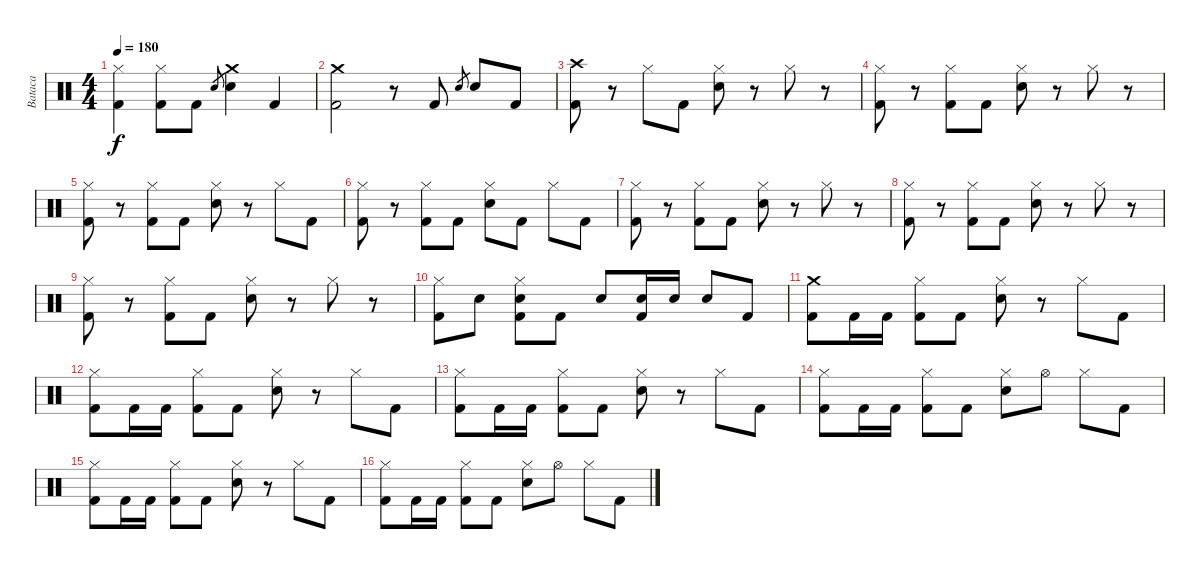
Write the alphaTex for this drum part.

\track ("Bataca" "Bataca") {instrument percussion}
\staff {score}
\articulation defaults
\ts (4 4)
\tempo 180
\clef neutral
\ks c
("Hi-Hat (closed)" "Kick (hit) 2").4{dy f} ("Hi-Hat (closed)" "Kick (hit) 2").8 "Kick (hit) 2".8 "Electric Snare (hit)".8{gr} ("Crash medium (hit)" "Electric Snare (hit)").4 "Kick (hit) 2".4 |
("Crash medium (hit)" "Kick (hit) 2").2 r.8 "Kick (hit) 2".8 "Electric Snare (hit)".8{gr} "Electric Snare (hit)".8 "Kick (hit) 2".8 |
("Crash high (hit)" "Kick (hit) 2").8 r.8 "Hi-Hat (closed)".8 "Kick (hit) 2".8 ("Hi-Hat (closed)" "Electric Snare (hit)").8 r.8 "Hi-Hat (closed)".8 r.8 |
("Hi-Hat (closed)" "Kick (hit) 2").8 r.8 ("Hi-Hat (closed)" "Kick (hit) 2").8 "Kick (hit) 2".8 ("Hi-Hat (closed)" "Electric Snare (hit)").8 r.8 "Hi-Hat (closed)".8 r.8 |
("Hi-Hat (closed)" "Kick (hit) 2").8 r.8 ("Hi-Hat (closed)" "Kick (hit) 2").8 "Kick (hit) 2".8 ("Hi-Hat (closed)" "Electric Snare (hit)").8 r.8 "Hi-Hat (closed)".8 "Kick (hit) 2".8 |
("Hi-Hat (closed)" "Kick (hit) 2").8 r.8 ("Hi-Hat (closed)" "Kick (hit) 2").8 "Kick (hit) 2".8 ("Hi-Hat (closed)" "Electric Snare (hit)").8 "Kick (hit) 2".8 "Hi-Hat (closed)".8 "Kick (hit) 2".8 |
("Hi-Hat (closed)" "Kick (hit) 2").8 r.8 ("Hi-Hat (closed)" "Kick (hit) 2").8 "Kick (hit) 2".8 ("Hi-Hat (closed)" "Electric Snare (hit)").8 r.8 "Hi-Hat (closed)".8 r.8 |
("Hi-Hat (closed)" "Kick (hit) 2").8 r.8 ("Hi-Hat (closed)" "Kick (hit) 2").8 "Kick (hit) 2".8 ("Hi-Hat (closed)" "Electric Snare (hit)").8 r.8 "Hi-Hat (closed)".8 r.8 |
("Hi-Hat (closed)" "Kick (hit) 2").8 r.8 ("Hi-Hat (closed)" "Kick (hit) 2").8 "Kick (hit) 2".8 ("Hi-Hat (closed)" "Electric Snare (hit)").8 r.8 "Hi-Hat (closed)".8 r.8 |
("Hi-Hat (closed)" "Kick (hit) 2").8 "Electric Snare (hit)".8 ("Hi-Hat (closed)" "Electric Snare (hit)" "Kick (hit) 2").8 "Kick (hit) 2".8 "Electric Snare (hit)".8 ("Electric Snare (hit)" "Kick (hit) 2").16 "Electric Snare (hit)".16 "Electric Snare (hit)".8 "Kick (hit) 2".8 |
("Crash medium (hit)" "Kick (hit) 2").8 "Kick (hit) 2".16 "Kick (hit) 2".16 ("Hi-Hat (closed)" "Kick (hit) 2").8 "Kick (hit) 2".8 ("Hi-Hat (closed)" "Electric Snare (hit)").8 r.8 "Hi-Hat (closed)".8 "Kick (hit) 2".8 |
("Hi-Hat (closed)" "Kick (hit) 2").8 "Kick (hit) 2".16 "Kick (hit) 2".16 ("Hi-Hat (closed)" "Kick (hit) 2").8 "Kick (hit) 2".8 ("Hi-Hat (closed)" "Electric Snare (hit)").8 r.8 "Hi-Hat (closed)".8 "Kick (hit) 2".8 |
("Hi-Hat (closed)" "Kick (hit) 2").8 "Kick (hit) 2".16 "Kick (hit) 2".16 ("Hi-Hat (closed)" "Kick (hit) 2").8 "Kick (hit) 2".8 ("Hi-Hat (closed)" "Electric Snare (hit)").8 r.8 "Hi-Hat (closed)".8 "Kick (hit) 2".8 |
("Hi-Hat (closed)" "Kick (hit) 2").8 "Kick (hit) 2".16 "Kick (hit) 2".16 ("Hi-Hat (closed)" "Kick (hit) 2").8 "Kick (hit) 2".8 ("Hi-Hat (closed)" "Electric Snare (hit)").8 "Hi-Hat (open)".8 "Hi-Hat (closed)".8 "Kick (hit) 2".8 |
("Hi-Hat (closed)" "Kick (hit) 2").8 "Kick (hit) 2".16 "Kick (hit) 2".16 ("Hi-Hat (closed)" "Kick (hit) 2").8 "Kick (hit) 2".8 ("Hi-Hat (closed)" "Electric Snare (hit)").8 r.8 "Hi-Hat (closed)".8 "Kick (hit) 2".8 |
("Hi-Hat (closed)" "Kick (hit) 2").8 "Kick (hit) 2".16 "Kick (hit) 2".16 ("Hi-Hat (closed)" "Kick (hit) 2").8 "Kick (hit) 2".8 ("Hi-Hat (closed)" "Electric Snare (hit)").8 "Hi-Hat (open)".8 "Hi-Hat (closed)".8 "Kick (hit) 2".8
